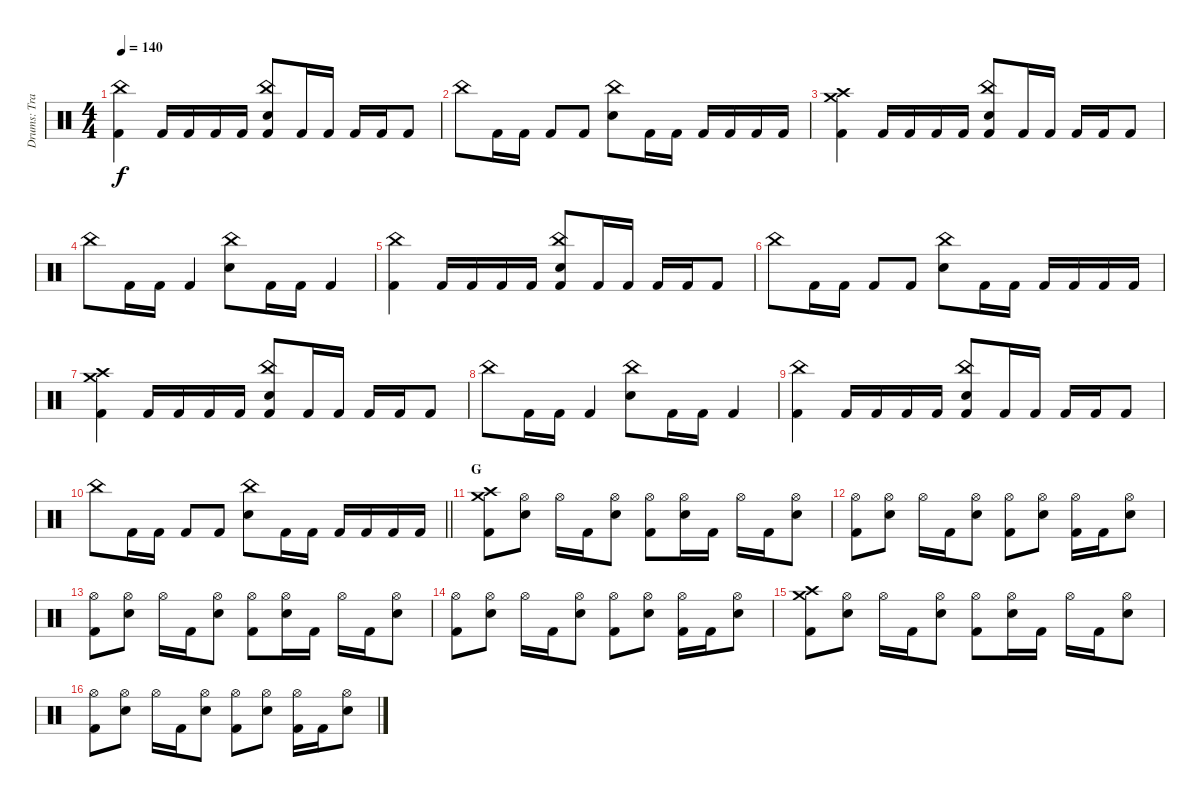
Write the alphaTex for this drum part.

\track ("Drums: Travis Clarke" "Drums: Tra") {instrument percussion}
\staff {score}
\articulation defaults
\ts (4 4)
\tempo 140
\clef neutral
\ks c
("Kick (hit) 2" "China (hit)").4{dy f} "Kick (hit) 2".16 "Kick (hit) 2".16 "Kick (hit) 2".16 "Kick (hit) 2".16 ("Kick (hit) 2" "Snare (hit) 2" "China (hit)").8 "Kick (hit) 2".16 "Kick (hit) 2".16 "Kick (hit) 2".16 "Kick (hit) 2".16 "Kick (hit) 2".8 |
"China (hit)".8 "Kick (hit) 2".16 "Kick (hit) 2".16 "Kick (hit) 2".8 "Kick (hit) 2".8 ("Snare (hit) 2" "China (hit)").8 "Kick (hit) 2".16 "Kick (hit) 2".16 "Kick (hit) 2".16 "Kick (hit) 2".16 "Kick (hit) 2".16 "Kick (hit) 2".16 |
("Kick (hit) 2" "Crash high (hit)" "Crash medium (hit)").4 "Kick (hit) 2".16 "Kick (hit) 2".16 "Kick (hit) 2".16 "Kick (hit) 2".16 ("Kick (hit) 2" "Snare (hit) 2" "China (hit)").8 "Kick (hit) 2".16 "Kick (hit) 2".16 "Kick (hit) 2".16 "Kick (hit) 2".16 "Kick (hit) 2".8 |
"China (hit)".8 "Kick (hit) 2".16 "Kick (hit) 2".16 "Kick (hit) 2".4 ("Snare (hit) 2" "China (hit)").8 "Kick (hit) 2".16 "Kick (hit) 2".16 "Kick (hit) 2".4 |
("Kick (hit) 2" "China (hit)").4 "Kick (hit) 2".16 "Kick (hit) 2".16 "Kick (hit) 2".16 "Kick (hit) 2".16 ("Kick (hit) 2" "Snare (hit) 2" "China (hit)").8 "Kick (hit) 2".16 "Kick (hit) 2".16 "Kick (hit) 2".16 "Kick (hit) 2".16 "Kick (hit) 2".8 |
"China (hit)".8 "Kick (hit) 2".16 "Kick (hit) 2".16 "Kick (hit) 2".8 "Kick (hit) 2".8 ("Snare (hit) 2" "China (hit)").8 "Kick (hit) 2".16 "Kick (hit) 2".16 "Kick (hit) 2".16 "Kick (hit) 2".16 "Kick (hit) 2".16 "Kick (hit) 2".16 |
("Kick (hit) 2" "Crash high (hit)" "Crash medium (hit)").4 "Kick (hit) 2".16 "Kick (hit) 2".16 "Kick (hit) 2".16 "Kick (hit) 2".16 ("Kick (hit) 2" "Snare (hit) 2" "China (hit)").8 "Kick (hit) 2".16 "Kick (hit) 2".16 "Kick (hit) 2".16 "Kick (hit) 2".16 "Kick (hit) 2".8 |
"China (hit)".8 "Kick (hit) 2".16 "Kick (hit) 2".16 "Kick (hit) 2".4 ("Snare (hit) 2" "China (hit)").8 "Kick (hit) 2".16 "Kick (hit) 2".16 "Kick (hit) 2".4 |
("Kick (hit) 2" "China (hit)").4 "Kick (hit) 2".16 "Kick (hit) 2".16 "Kick (hit) 2".16 "Kick (hit) 2".16 ("Kick (hit) 2" "Snare (hit) 2" "China (hit)").8 "Kick (hit) 2".16 "Kick (hit) 2".16 "Kick (hit) 2".16 "Kick (hit) 2".16 "Kick (hit) 2".8 |
\barLineRight lightlight "China (hit)".8 "Kick (hit) 2".16 "Kick (hit) 2".16 "Kick (hit) 2".8 "Kick (hit) 2".8
("Snare (hit) 2" "China (hit)").8 "Kick (hit) 2".16 "Kick (hit) 2".16 "Kick (hit) 2".16 "Kick (hit) 2".16 "Kick (hit) 2".16 "Kick (hit) 2".16 |
\section ("" "G")
("Kick (hit) 2" "Crash high (hit)" "Crash medium (hit)").8 ("Snare (hit) 2" "Hi-Hat (open)").8 "Hi-Hat (open)".16 "Kick (hit) 2".16 ("Snare (hit) 2" "Hi-Hat (open)").8 ("Kick (hit) 2" "Hi-Hat (open)").8 ("Snare (hit) 2" "Hi-Hat (open)").16 "Kick (hit) 2".16 "Hi-Hat (open)".16 "Kick (hit) 2".16 ("Snare (hit) 2" "Hi-Hat (open)").8 |
("Kick (hit) 2" "Hi-Hat (open)").8 ("Snare (hit) 2" "Hi-Hat (open)").8 "Hi-Hat (open)".16 "Kick (hit) 2".16 ("Snare (hit) 2" "Hi-Hat (open)").8 ("Kick (hit) 2" "Hi-Hat (open)").8 ("Snare (hit) 2" "Hi-Hat (open)").8 ("Kick (hit) 2" "Hi-Hat (open)").16 "Kick (hit) 2".16 ("Snare (hit) 2" "Hi-Hat (open)").8 |
("Kick (hit) 2" "Hi-Hat (open)").8 ("Snare (hit) 2" "Hi-Hat (open)").8 "Hi-Hat (open)".16 "Kick (hit) 2".16 ("Snare (hit) 2" "Hi-Hat (open)").8 ("Kick (hit) 2" "Hi-Hat (open)").8 ("Snare (hit) 2" "Hi-Hat (open)").16 "Kick (hit) 2".16 "Hi-Hat (open)".16 "Kick (hit) 2".16 ("Snare (hit) 2" "Hi-Hat (open)").8 |
("Kick (hit) 2" "Hi-Hat (open)").8 ("Snare (hit) 2" "Hi-Hat (open)").8 "Hi-Hat (open)".16 "Kick (hit) 2".16 ("Snare (hit) 2" "Hi-Hat (open)").8 ("Kick (hit) 2" "Hi-Hat (open)").8 ("Snare (hit) 2" "Hi-Hat (open)").8 ("Kick (hit) 2" "Hi-Hat (open)").16 "Kick (hit) 2".16 ("Snare (hit) 2" "Hi-Hat (open)").8 |
("Kick (hit) 2" "Crash high (hit)" "Crash medium (hit)").8 ("Snare (hit) 2" "Hi-Hat (open)").8 "Hi-Hat (open)".16 "Kick (hit) 2".16 ("Snare (hit) 2" "Hi-Hat (open)").8 ("Kick (hit) 2" "Hi-Hat (open)").8 ("Snare (hit) 2" "Hi-Hat (open)").16 "Kick (hit) 2".16 "Hi-Hat (open)".16 "Kick (hit) 2".16 ("Snare (hit) 2" "Hi-Hat (open)").8 |
("Kick (hit) 2" "Hi-Hat (open)").8 ("Snare (hit) 2" "Hi-Hat (open)").8 "Hi-Hat (open)".16 "Kick (hit) 2".16 ("Snare (hit) 2" "Hi-Hat (open)").8 ("Kick (hit) 2" "Hi-Hat (open)").8 ("Snare (hit) 2" "Hi-Hat (open)").8 ("Kick (hit) 2" "Hi-Hat (open)").16 "Kick (hit) 2".16 ("Snare (hit) 2" "Hi-Hat (open)").8
